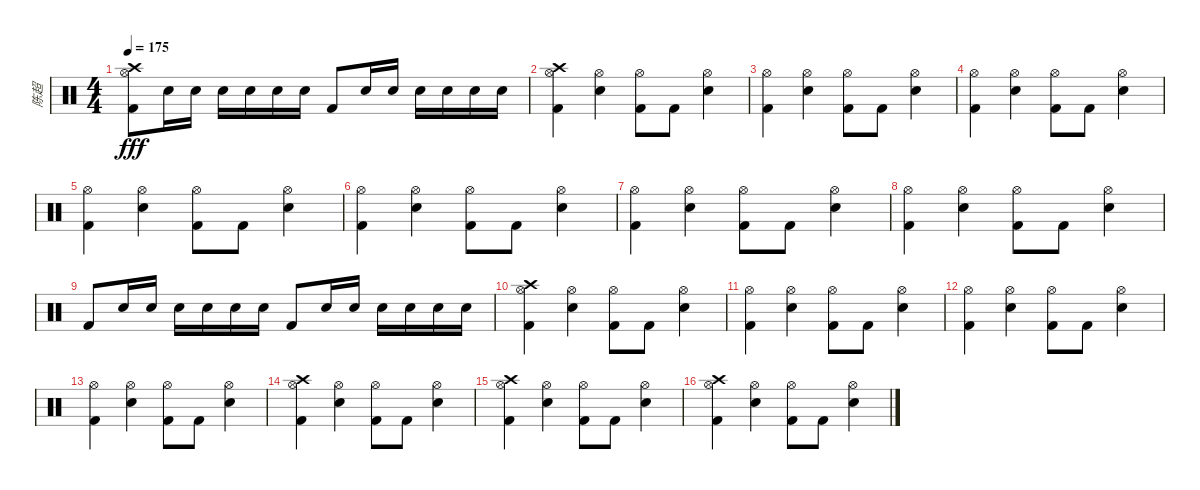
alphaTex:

\track ("陈超" "陈超") {instrument percussion}
\staff {score}
\articulation defaults
\ts (4 4)
\tempo 175
\clef neutral
\ks c
("Crash high (hit)" "Hi-Hat (open)" "Kick (hit) 2").8{dy fff} "Electric Snare (hit)".16 "Electric Snare (hit)".16 "Electric Snare (hit)".16 "Electric Snare (hit)".16 "Electric Snare (hit)".16 "Electric Snare (hit)".16 "Kick (hit) 2".8 "Electric Snare (hit)".16 "Electric Snare (hit)".16 "Electric Snare (hit)".16 "Electric Snare (hit)".16 "Electric Snare (hit)".16 "Electric Snare (hit)".16 |
("Crash high (hit)" "Hi-Hat (open)" "Kick (hit) 2").4 ("Hi-Hat (open)" "Electric Snare (hit)").4 ("Hi-Hat (open)" "Kick (hit) 2").8 "Kick (hit) 2".8 ("Hi-Hat (open)" "Electric Snare (hit)").4 |
("Hi-Hat (open)" "Kick (hit) 2").4 ("Hi-Hat (open)" "Electric Snare (hit)").4 ("Hi-Hat (open)" "Kick (hit) 2").8 "Kick (hit) 2".8 ("Hi-Hat (open)" "Electric Snare (hit)").4 |
("Hi-Hat (open)" "Kick (hit) 2").4 ("Hi-Hat (open)" "Electric Snare (hit)").4 ("Hi-Hat (open)" "Kick (hit) 2").8 "Kick (hit) 2".8 ("Hi-Hat (open)" "Electric Snare (hit)").4 |
("Hi-Hat (open)" "Kick (hit) 2").4 ("Hi-Hat (open)" "Electric Snare (hit)").4 ("Hi-Hat (open)" "Kick (hit) 2").8 "Kick (hit) 2".8 ("Hi-Hat (open)" "Electric Snare (hit)").4 |
("Hi-Hat (open)" "Kick (hit) 2").4 ("Hi-Hat (open)" "Electric Snare (hit)").4 ("Hi-Hat (open)" "Kick (hit) 2").8 "Kick (hit) 2".8 ("Hi-Hat (open)" "Electric Snare (hit)").4 |
("Hi-Hat (open)" "Kick (hit) 2").4 ("Hi-Hat (open)" "Electric Snare (hit)").4 ("Hi-Hat (open)" "Kick (hit) 2").8 "Kick (hit) 2".8 ("Hi-Hat (open)" "Electric Snare (hit)").4 |
("Hi-Hat (open)" "Kick (hit) 2").4 ("Hi-Hat (open)" "Electric Snare (hit)").4 ("Hi-Hat (open)" "Kick (hit) 2").8 "Kick (hit) 2".8 ("Hi-Hat (open)" "Electric Snare (hit)").4 |
"Kick (hit) 2".8 "Electric Snare (hit)".16 "Electric Snare (hit)".16 "Electric Snare (hit)".16 "Electric Snare (hit)".16 "Electric Snare (hit)".16 "Electric Snare (hit)".16 "Kick (hit) 2".8 "Electric Snare (hit)".16 "Electric Snare (hit)".16 "Electric Snare (hit)".16 "Electric Snare (hit)".16 "Electric Snare (hit)".16 "Electric Snare (hit)".16 |
("Crash high (hit)" "Hi-Hat (open)" "Kick (hit) 2").4 ("Hi-Hat (open)" "Electric Snare (hit)").4 ("Hi-Hat (open)" "Kick (hit) 2").8 "Kick (hit) 2".8 ("Hi-Hat (open)" "Electric Snare (hit)").4 |
("Hi-Hat (open)" "Kick (hit) 2").4 ("Hi-Hat (open)" "Electric Snare (hit)").4 ("Hi-Hat (open)" "Kick (hit) 2").8 "Kick (hit) 2".8 ("Hi-Hat (open)" "Electric Snare (hit)").4 |
("Hi-Hat (open)" "Kick (hit) 2").4 ("Hi-Hat (open)" "Electric Snare (hit)").4 ("Hi-Hat (open)" "Kick (hit) 2").8 "Kick (hit) 2".8 ("Hi-Hat (open)" "Electric Snare (hit)").4 |
("Hi-Hat (open)" "Kick (hit) 2").4 ("Hi-Hat (open)" "Electric Snare (hit)").4 ("Hi-Hat (open)" "Kick (hit) 2").8 "Kick (hit) 2".8 ("Hi-Hat (open)" "Electric Snare (hit)").4 |
("Crash high (hit)" "Hi-Hat (open)" "Kick (hit) 2").4 ("Hi-Hat (open)" "Electric Snare (hit)").4 ("Hi-Hat (open)" "Kick (hit) 2").8 "Kick (hit) 2".8 ("Hi-Hat (open)" "Electric Snare (hit)").4 |
("Crash high (hit)" "Hi-Hat (open)" "Kick (hit) 2").4 ("Hi-Hat (open)" "Electric Snare (hit)").4 ("Hi-Hat (open)" "Kick (hit) 2").8 "Kick (hit) 2".8 ("Hi-Hat (open)" "Electric Snare (hit)").4 |
("Crash high (hit)" "Hi-Hat (open)" "Kick (hit) 2").4 ("Hi-Hat (open)" "Electric Snare (hit)").4 ("Hi-Hat (open)" "Kick (hit) 2").8 "Kick (hit) 2".8 ("Hi-Hat (open)" "Electric Snare (hit)").4
